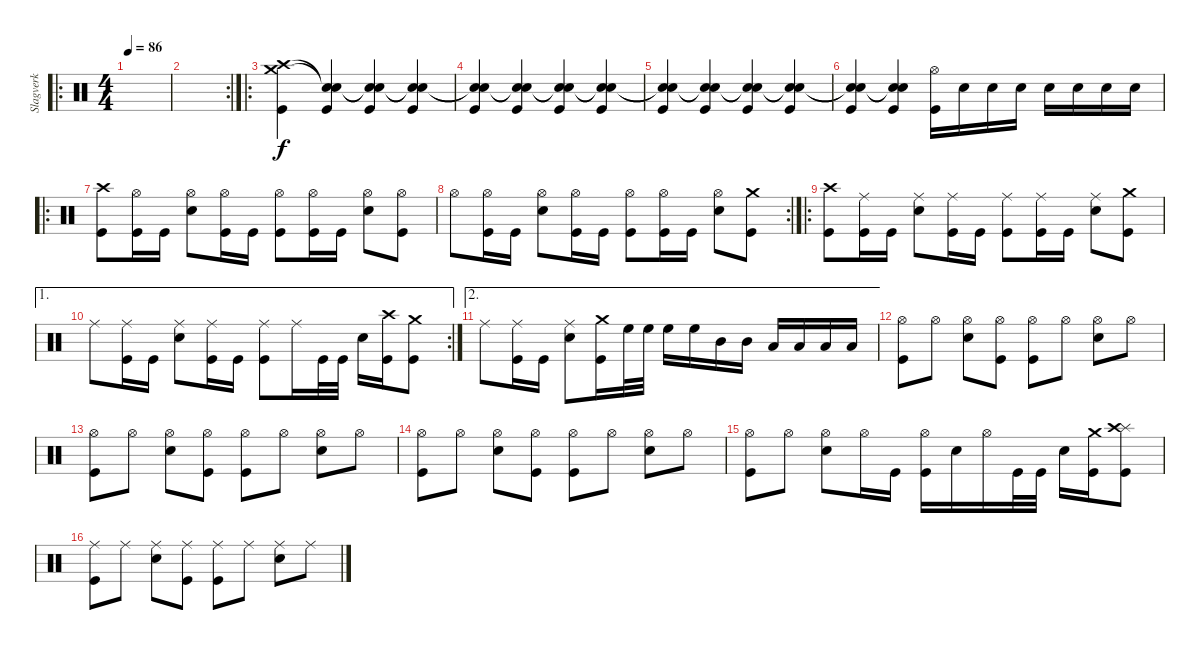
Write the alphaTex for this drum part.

\track ("Slagverk" "Slagverk") {instrument percussion}
\staff {score}
\articulation defaults
\ro
\ts (4 4)
\tempo 86
\clef neutral
\ks c
|
\rc 2
|
\ro
("Crash medium (hit)" "Crash high (hit)" "Kick (hit)").4 ("Snare (hit)"{t} "Snare (hit)"{t} "Kick (hit)").4 ("Snare (hit)"{t} "Snare (hit)"{t} "Kick (hit)").4 ("Snare (hit)"{t} "Snare (hit)"{t} "Kick (hit)").4 |
("Snare (hit)"{t} "Snare (hit)"{t} "Kick (hit)").4 ("Snare (hit)"{t} "Snare (hit)"{t} "Kick (hit)").4 ("Snare (hit)"{t} "Snare (hit)"{t} "Kick (hit)").4 ("Snare (hit)"{t} "Snare (hit)"{t} "Kick (hit)").4 |
("Snare (hit)"{t} "Snare (hit)"{t} "Kick (hit)").4 ("Snare (hit)"{t} "Snare (hit)"{t} "Kick (hit)").4 ("Snare (hit)"{t} "Snare (hit)"{t} "Kick (hit)").4 ("Snare (hit)"{t} "Snare (hit)"{t} "Kick (hit)").4 |
("Snare (hit)"{t} "Snare (hit)"{t} "Kick (hit)").4 ("Snare (hit)"{t} "Snare (hit)"{t} "Kick (hit)").4 ("Hi-Hat (open)" "Kick (hit)").16 "Electric Snare (hit)".16 "Electric Snare (hit)".16 "Electric Snare (hit)".16 "Electric Snare (hit)".16 "Electric Snare (hit)".16 "Electric Snare (hit)".16 "Electric Snare (hit)".16 |
\ro
("Crash high (hit)" "Kick (hit)").8 ("Hi-Hat (open)" "Kick (hit)").16 "Kick (hit)".16 ("Hi-Hat (open)" "Electric Snare (hit)").8 ("Hi-Hat (open)" "Kick (hit)").16 "Kick (hit)".16 ("Hi-Hat (open)" "Kick (hit)").8 ("Hi-Hat (open)" "Kick (hit)").16 "Kick (hit)".16 ("Hi-Hat (open)" "Electric Snare (hit)").8 ("Hi-Hat (open)" "Kick (hit)").8 |
\rc 2 "Hi-Hat (open)".8
("Hi-Hat (open)" "Kick (hit)").16 "Kick (hit)".16 ("Hi-Hat (open)" "Electric Snare (hit)").8 ("Hi-Hat (open)" "Kick (hit)").16 "Kick (hit)".16 ("Hi-Hat (open)" "Kick (hit)").8 ("Hi-Hat (open)" "Kick (hit)").16 "Kick (hit)".16 ("Hi-Hat (open)" "Electric Snare (hit)").8 ("Crash medium (hit)" "Kick (hit)").8 |
\ro
("Crash high (hit)" "Kick (hit)").8 ("Ride (middle)" "Kick (hit)").16 "Kick (hit)".16 ("Ride (middle)" "Electric Snare (hit)").8 ("Ride (middle)" "Kick (hit)").16 "Kick (hit)".16 ("Ride (middle)" "Kick (hit)").8 ("Ride (middle)" "Kick (hit)").16 "Kick (hit)".16 ("Ride (middle)" "Electric Snare (hit)").8 ("Crash medium (hit)" "Kick (hit)").8 |
\ae 1
\rc 2 "Ride (middle)".8
("Ride (middle)" "Kick (hit)").16 "Kick (hit)".16 ("Ride (middle)" "Electric Snare (hit)").8 ("Ride (middle)" "Kick (hit)").16 "Kick (hit)".16 ("Ride (middle)" "Kick (hit)").8 "Ride (middle)".16 "Kick (hit)".32 "Kick (hit)".32 "Electric Snare (hit)".16 ("Crash high (hit)" "Kick (hit)").16 ("Crash medium (hit)" "Kick (hit)").8 |
\ae 2 "Ride (middle)".8
("Ride (middle)" "Kick (hit)").16 "Kick (hit)".16 ("Ride (middle)" "Electric Snare (hit)").8 ("Crash medium (hit)" "Kick (hit)").16 "High Floor Tom (hit)".32 "High Floor Tom (hit)".32 "High Floor Tom (hit)".16 "High Floor Tom (hit)".16 "Mid Tom (hit)".16 "Mid Tom (hit)".16 "Low Tom (hit)".16 "Low Tom (hit)".16 "Low Floor Tom (hit)".16 "Low Floor Tom (hit)".16 |
("Hi-Hat (open)" "Kick (hit)").8 "Hi-Hat (open)".8 ("Hi-Hat (open)" "Electric Snare (hit)").8 ("Hi-Hat (open)" "Kick (hit)").8 ("Hi-Hat (open)" "Kick (hit)").8 "Hi-Hat (open)".8 ("Hi-Hat (open)" "Electric Snare (hit)").8 "Hi-Hat (open)".8 |
("Hi-Hat (open)" "Kick (hit)").8 "Hi-Hat (open)".8 ("Hi-Hat (open)" "Electric Snare (hit)").8 ("Hi-Hat (open)" "Kick (hit)").8 ("Hi-Hat (open)" "Kick (hit)").8 "Hi-Hat (open)".8 ("Hi-Hat (open)" "Electric Snare (hit)").8 "Hi-Hat (open)".8 |
("Hi-Hat (open)" "Kick (hit)").8 "Hi-Hat (open)".8 ("Hi-Hat (open)" "Electric Snare (hit)").8 ("Hi-Hat (open)" "Kick (hit)").8 ("Hi-Hat (open)" "Kick (hit)").8 "Hi-Hat (open)".8 ("Hi-Hat (open)" "Electric Snare (hit)").8 "Hi-Hat (open)".8 |
("Hi-Hat (open)" "Kick (hit)").8 "Hi-Hat (open)".8 ("Hi-Hat (open)" "Electric Snare (hit)").8 "Hi-Hat (open)".16 "Kick (hit)".16 ("Hi-Hat (open)" "Kick (hit)").16 "Electric Snare (hit)".16 "Hi-Hat (open)".16 "Kick (hit)".32 "Kick (hit)".32 "Electric Snare (hit)".16 ("Crash medium (hit)" "Kick (hit)").16 ("Splash (hit)" "Crash high (hit)" "Kick (hit)").8 |
("Ride (middle)" "Kick (hit)").8 "Ride (middle)".8 ("Ride (middle)" "Electric Snare (hit)").8 ("Ride (middle)" "Kick (hit)").8 ("Ride (middle)" "Kick (hit)").8 "Ride (middle)".8 ("Ride (middle)" "Electric Snare (hit)").8 "Ride (middle)".8
